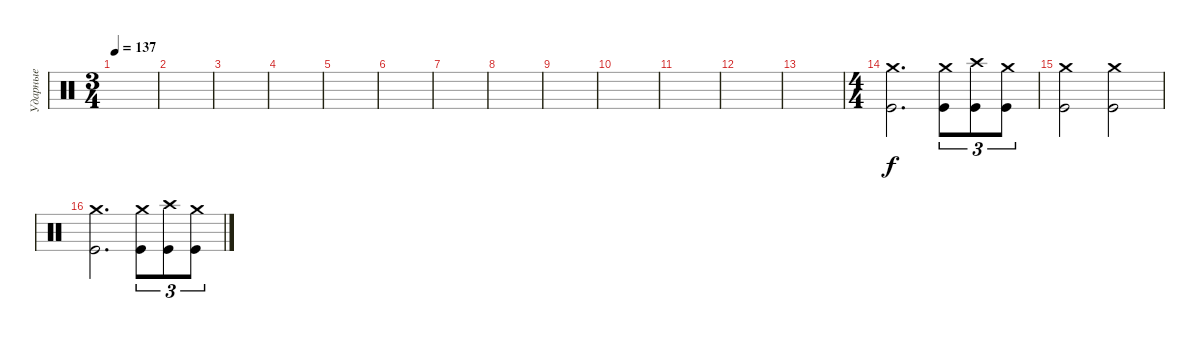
\track ("Ударные" "Ударные") {instrument percussion}
\staff {score}
\articulation defaults
\ts (3 4)
\tempo 137
\clef neutral
\ks c
|
|
|
|
|
|
|
|
|
|
|
|
|
\ts (4 4)
("Crash medium (hit)" "Kick (hit)").2{d} ("Crash medium (hit)" "Kick (hit)").8{tu (3 2)} ("Crash high (hit)" "Kick (hit)").8{tu (3 2)} ("Crash medium (hit)" "Kick (hit)").8{tu (3 2)} |
("Crash medium (hit)" "Kick (hit)").2 ("Crash medium (hit)" "Kick (hit)").2 |
("Crash medium (hit)" "Kick (hit)").2{d} ("Crash medium (hit)" "Kick (hit)").8{tu (3 2)} ("Crash high (hit)" "Kick (hit)").8{tu (3 2)} ("Crash medium (hit)" "Kick (hit)").8{tu (3 2)}
